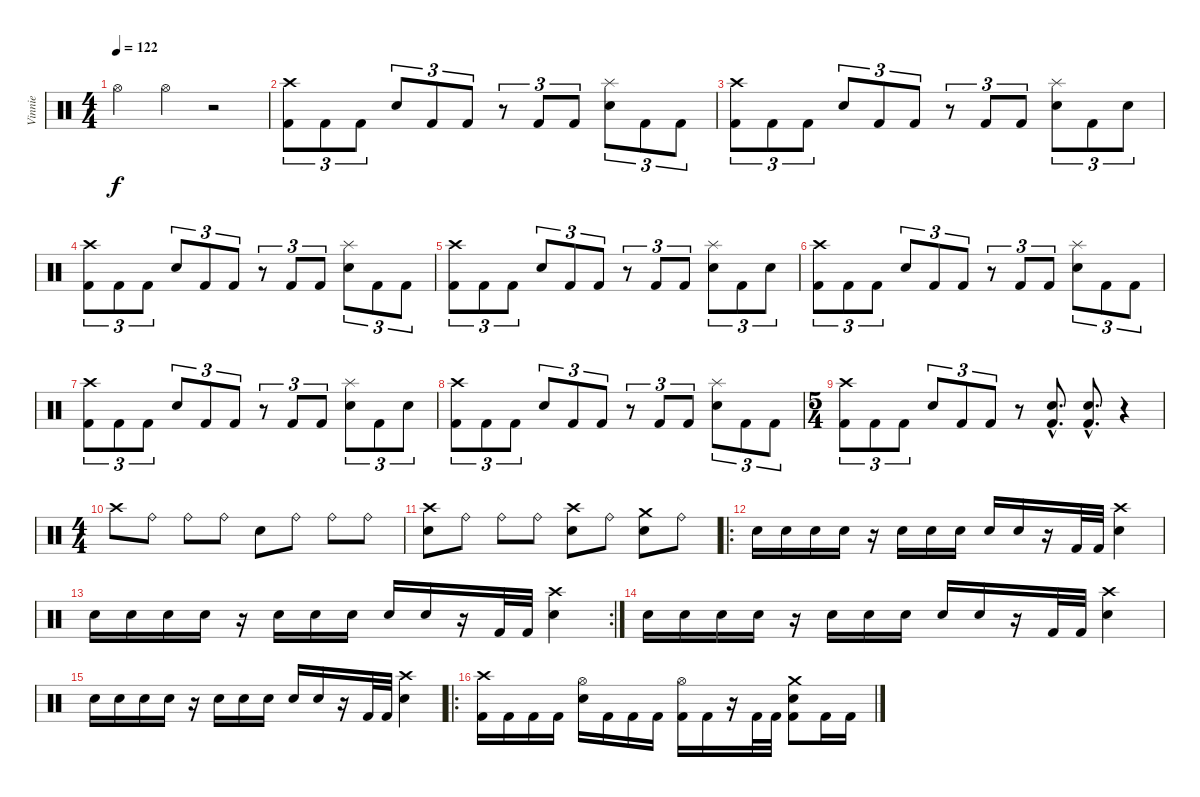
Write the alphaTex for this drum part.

\track ("Vinnie" "Vinnie") {instrument percussion}
\staff {score}
\articulation defaults
\ts (4 4)
\tempo 122
\clef neutral
\ks c "Hi-Hat (open)".4{dy f} "Hi-Hat (open)".4
r.2 |
("Crash high (hit)" "Kick (hit) 2").8{tu (3 2)} "Kick (hit) 2".8{tu (3 2)} "Kick (hit) 2".8{tu (3 2)} "Snare (hit) 2".8{tu (3 2)} "Kick (hit) 2".8{tu (3 2)} "Kick (hit) 2".8{tu (3 2)} r.8{tu (3 2)} "Kick (hit) 2".8{tu (3 2)} "Kick (hit) 2".8{tu (3 2)} ("Splash (hit)" "Snare (hit) 2").8{tu (3 2)} "Kick (hit) 2".8{tu (3 2)} "Kick (hit) 2".8{tu (3 2)} |
("Crash high (hit)" "Kick (hit) 2").8{tu (3 2)} "Kick (hit) 2".8{tu (3 2)} "Kick (hit) 2".8{tu (3 2)} "Snare (hit) 2".8{tu (3 2)} "Kick (hit) 2".8{tu (3 2)} "Kick (hit) 2".8{tu (3 2)} r.8{tu (3 2)} "Kick (hit) 2".8{tu (3 2)} "Kick (hit) 2".8{tu (3 2)} ("Splash (hit)" "Snare (hit) 2").8{tu (3 2)} "Kick (hit) 2".8{tu (3 2)} "Snare (hit) 2".8{tu (3 2)} |
("Crash high (hit)" "Kick (hit) 2").8{tu (3 2)} "Kick (hit) 2".8{tu (3 2)} "Kick (hit) 2".8{tu (3 2)} "Snare (hit) 2".8{tu (3 2)} "Kick (hit) 2".8{tu (3 2)} "Kick (hit) 2".8{tu (3 2)} r.8{tu (3 2)} "Kick (hit) 2".8{tu (3 2)} "Kick (hit) 2".8{tu (3 2)} ("Splash (hit)" "Snare (hit) 2").8{tu (3 2)} "Kick (hit) 2".8{tu (3 2)} "Kick (hit) 2".8{tu (3 2)} |
("Crash high (hit)" "Kick (hit) 2").8{tu (3 2)} "Kick (hit) 2".8{tu (3 2)} "Kick (hit) 2".8{tu (3 2)} "Snare (hit) 2".8{tu (3 2)} "Kick (hit) 2".8{tu (3 2)} "Kick (hit) 2".8{tu (3 2)} r.8{tu (3 2)} "Kick (hit) 2".8{tu (3 2)} "Kick (hit) 2".8{tu (3 2)} ("Splash (hit)" "Snare (hit) 2").8{tu (3 2)} "Kick (hit) 2".8{tu (3 2)} "Snare (hit) 2".8{tu (3 2)} |
("Crash high (hit)" "Kick (hit) 2").8{tu (3 2)} "Kick (hit) 2".8{tu (3 2)} "Kick (hit) 2".8{tu (3 2)} "Snare (hit) 2".8{tu (3 2)} "Kick (hit) 2".8{tu (3 2)} "Kick (hit) 2".8{tu (3 2)} r.8{tu (3 2)} "Kick (hit) 2".8{tu (3 2)} "Kick (hit) 2".8{tu (3 2)} ("Splash (hit)" "Snare (hit) 2").8{tu (3 2)} "Kick (hit) 2".8{tu (3 2)} "Kick (hit) 2".8{tu (3 2)} |
("Crash high (hit)" "Kick (hit) 2").8{tu (3 2)} "Kick (hit) 2".8{tu (3 2)} "Kick (hit) 2".8{tu (3 2)} "Snare (hit) 2".8{tu (3 2)} "Kick (hit) 2".8{tu (3 2)} "Kick (hit) 2".8{tu (3 2)} r.8{tu (3 2)} "Kick (hit) 2".8{tu (3 2)} "Kick (hit) 2".8{tu (3 2)} ("Splash (hit)" "Snare (hit) 2").8{tu (3 2)} "Kick (hit) 2".8{tu (3 2)} "Snare (hit) 2".8{tu (3 2)} |
("Crash high (hit)" "Kick (hit) 2").8{tu (3 2)} "Kick (hit) 2".8{tu (3 2)} "Kick (hit) 2".8{tu (3 2)} "Snare (hit) 2".8{tu (3 2)} "Kick (hit) 2".8{tu (3 2)} "Kick (hit) 2".8{tu (3 2)} r.8{tu (3 2)} "Kick (hit) 2".8{tu (3 2)} "Kick (hit) 2".8{tu (3 2)} ("Splash (hit)" "Snare (hit) 2").8{tu (3 2)} "Kick (hit) 2".8{tu (3 2)} "Kick (hit) 2".8{tu (3 2)} |
\ts (5 4)
("Crash high (hit)" "Kick (hit) 2").8{tu (3 2)} "Kick (hit) 2".8{tu (3 2)} "Kick (hit) 2".8{tu (3 2)} "Snare (hit) 2".8{tu (3 2)} "Kick (hit) 2".8{tu (3 2)} "Kick (hit) 2".8{tu (3 2)} r.8 ("Snare (hit) 2"{hac} "Kick (hit) 2"{hac}).8{d} ("Snare (hit) 2"{hac} "Kick (hit) 2"{hac}).8{d} r.4 |
\ts (4 4)
"Crash high (hit)".8 "Ride (bell)".8 "Ride (bell)".8 "Ride (bell)".8 "Snare (hit) 2".8 "Ride (bell)".8 "Ride (bell)".8 "Ride (bell)".8 |
("Crash high (hit)" "Snare (hit) 2").8 "Ride (bell)".8 "Ride (bell)".8 "Ride (bell)".8 ("Crash high (hit)" "Snare (hit) 2").8 "Ride (bell)".8 ("Crash medium (hit)" "Snare (hit) 2").8 "Ride (bell)".8 |
\ro "Snare (hit) 2".16 "Snare (hit) 2".16 "Snare (hit) 2".16 "Snare (hit) 2".16
r.16 "Snare (hit) 2".16 "Snare (hit) 2".16 "Snare (hit) 2".16 "Snare (hit) 2".16 "Snare (hit) 2".16 r.16 "Kick (hit) 2".32 "Kick (hit) 2".32 ("Crash high (hit)" "Snare (hit) 2").4 |
\rc 2 "Snare (hit) 2".16 "Snare (hit) 2".16 "Snare (hit) 2".16 "Snare (hit) 2".16
r.16 "Snare (hit) 2".16 "Snare (hit) 2".16 "Snare (hit) 2".16 "Snare (hit) 2".16 "Snare (hit) 2".16 r.16 "Kick (hit) 2".32 "Kick (hit) 2".32 ("Crash high (hit)" "Snare (hit) 2").4 |
"Snare (hit) 2".16 "Snare (hit) 2".16 "Snare (hit) 2".16 "Snare (hit) 2".16 r.16 "Snare (hit) 2".16 "Snare (hit) 2".16 "Snare (hit) 2".16 "Snare (hit) 2".16 "Snare (hit) 2".16 r.16 "Kick (hit) 2".32 "Kick (hit) 2".32 ("Crash high (hit)" "Snare (hit) 2").4 |
"Snare (hit) 2".16 "Snare (hit) 2".16 "Snare (hit) 2".16 "Snare (hit) 2".16 r.16 "Snare (hit) 2".16 "Snare (hit) 2".16 "Snare (hit) 2".16 "Snare (hit) 2".16 "Snare (hit) 2".16 r.16 "Kick (hit) 2".32 "Kick (hit) 2".32 ("Crash high (hit)" "Snare (hit) 2").4 |
\ro
("Crash high (hit)" "Kick (hit) 2").16 "Kick (hit) 2".16 "Kick (hit) 2".16 "Kick (hit) 2".16 ("Hi-Hat (open)" "Snare (hit) 2").16 "Kick (hit) 2".16 "Kick (hit) 2".16 "Kick (hit) 2".16 ("Hi-Hat (open)" "Kick (hit) 2").16 "Kick (hit) 2".16 r.16 "Kick (hit) 2".32 "Kick (hit) 2".32 ("Crash medium (hit)" "Snare (hit) 2" "Kick (hit) 2").8 "Kick (hit) 2".16 "Kick (hit) 2".16
